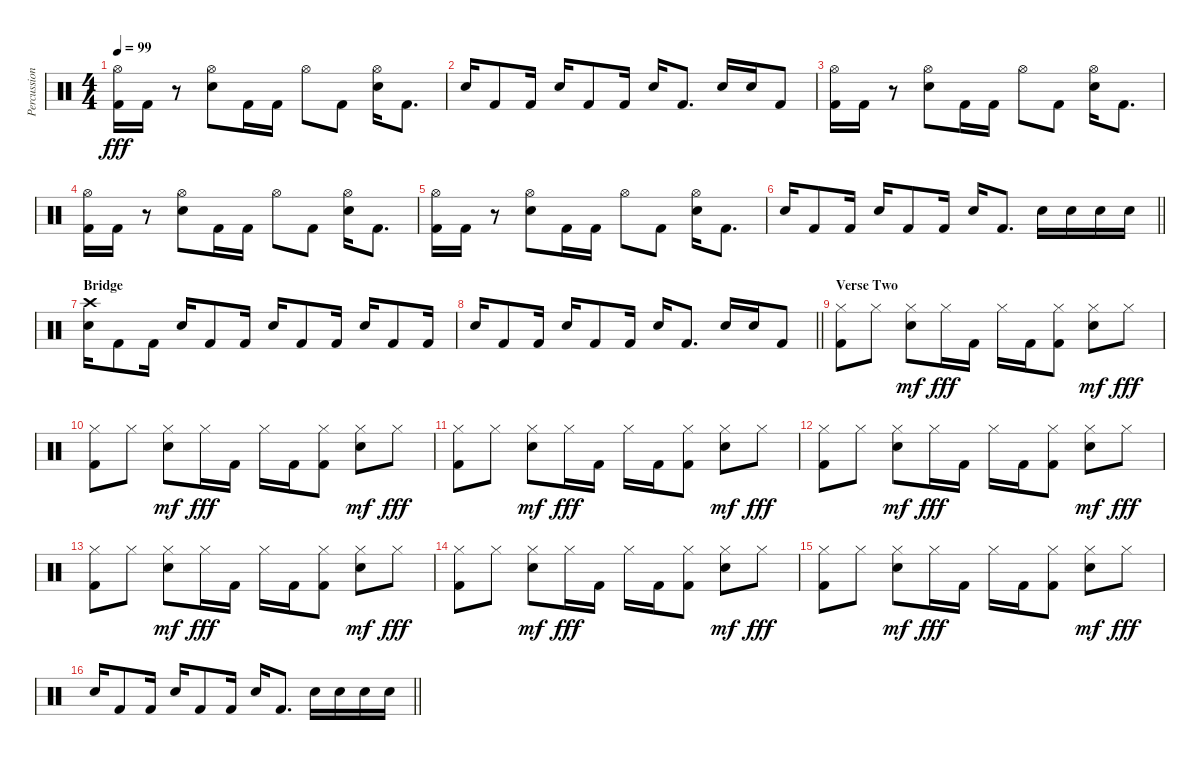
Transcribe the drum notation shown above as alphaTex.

\track ("Percussion" "Percussion") {instrument percussion}
\staff {score}
\articulation defaults
\ts (4 4)
\tempo 99
\clef neutral
\ks c
("Kick (hit) 2" "Hi-Hat (open)").16{dy fff} "Kick (hit) 2".16 r.8 ("Snare (hit) 2" "Hi-Hat (open)").8 "Kick (hit) 2".16 "Kick (hit) 2".16 "Hi-Hat (open)".8 "Kick (hit) 2".8 ("Snare (hit) 2" "Hi-Hat (open)").16 "Kick (hit) 2".8{d} |
"Snare (hit) 2".16 "Kick (hit) 2".8 "Kick (hit) 2".16 "Snare (hit) 2".16 "Kick (hit) 2".8 "Kick (hit) 2".16 "Snare (hit) 2".16 "Kick (hit) 2".8{d} "Snare (hit) 2".16 "Snare (hit) 2".16 "Kick (hit) 2".8 |
("Kick (hit) 2" "Hi-Hat (open)").16 "Kick (hit) 2".16 r.8 ("Snare (hit) 2" "Hi-Hat (open)").8 "Kick (hit) 2".16 "Kick (hit) 2".16 "Hi-Hat (open)".8 "Kick (hit) 2".8 ("Snare (hit) 2" "Hi-Hat (open)").16 "Kick (hit) 2".8{d} |
("Kick (hit) 2" "Hi-Hat (open)").16 "Kick (hit) 2".16 r.8 ("Snare (hit) 2" "Hi-Hat (open)").8 "Kick (hit) 2".16 "Kick (hit) 2".16 "Hi-Hat (open)".8 "Kick (hit) 2".8 ("Snare (hit) 2" "Hi-Hat (open)").16 "Kick (hit) 2".8{d} |
("Kick (hit) 2" "Hi-Hat (open)").16 "Kick (hit) 2".16 r.8 ("Snare (hit) 2" "Hi-Hat (open)").8 "Kick (hit) 2".16 "Kick (hit) 2".16 "Hi-Hat (open)".8 "Kick (hit) 2".8 ("Snare (hit) 2" "Hi-Hat (open)").16 "Kick (hit) 2".8{d} |
\barLineRight lightlight "Snare (hit) 2".16 "Kick (hit) 2".8 "Kick (hit) 2".16 "Snare (hit) 2".16 "Kick (hit) 2".8 "Kick (hit) 2".16 "Snare (hit) 2".16 "Kick (hit) 2".8{d} "Snare (hit) 2".16 "Snare (hit) 2".16 "Snare (hit) 2".16 "Snare (hit) 2".16
|
\section ("" "Bridge")
("Crash high (hit)" "Snare (hit) 2").16 "Kick (hit) 2".8 "Kick (hit) 2".16 "Snare (hit) 2".16 "Kick (hit) 2".8 "Kick (hit) 2".16 "Snare (hit) 2".16 "Kick (hit) 2".8 "Kick (hit) 2".16 "Snare (hit) 2".16 "Kick (hit) 2".8 "Kick (hit) 2".16 |
\barLineRight lightlight "Snare (hit) 2".16 "Kick (hit) 2".8 "Kick (hit) 2".16 "Snare (hit) 2".16 "Kick (hit) 2".8 "Kick (hit) 2".16 "Snare (hit) 2".16 "Kick (hit) 2".8{d} "Snare (hit) 2".16 "Snare (hit) 2".16 "Kick (hit) 2".8
|
\section ("" "Verse Two")
("Hi-Hat (closed)" "Kick (hit) 2").8 "Hi-Hat (closed)".8 ("Hi-Hat (closed)" "Snare (hit) 2").8{dy mf} "Hi-Hat (closed)".16{dy fff} "Kick (hit) 2".16 "Hi-Hat (closed)".16 "Kick (hit) 2".16 ("Hi-Hat (closed)" "Kick (hit) 2").8 ("Hi-Hat (closed)" "Snare (hit) 2").8{dy mf} "Hi-Hat (closed)".8{dy fff} |
("Hi-Hat (closed)" "Kick (hit) 2").8 "Hi-Hat (closed)".8 ("Hi-Hat (closed)" "Snare (hit) 2").8{dy mf} "Hi-Hat (closed)".16{dy fff} "Kick (hit) 2".16 "Hi-Hat (closed)".16 "Kick (hit) 2".16 ("Hi-Hat (closed)" "Kick (hit) 2").8 ("Hi-Hat (closed)" "Snare (hit) 2").8{dy mf} "Hi-Hat (closed)".8{dy fff} |
("Hi-Hat (closed)" "Kick (hit) 2").8 "Hi-Hat (closed)".8 ("Hi-Hat (closed)" "Snare (hit) 2").8{dy mf} "Hi-Hat (closed)".16{dy fff} "Kick (hit) 2".16 "Hi-Hat (closed)".16 "Kick (hit) 2".16 ("Hi-Hat (closed)" "Kick (hit) 2").8 ("Hi-Hat (closed)" "Snare (hit) 2").8{dy mf} "Hi-Hat (closed)".8{dy fff} |
("Hi-Hat (closed)" "Kick (hit) 2").8 "Hi-Hat (closed)".8 ("Hi-Hat (closed)" "Snare (hit) 2").8{dy mf} "Hi-Hat (closed)".16{dy fff} "Kick (hit) 2".16 "Hi-Hat (closed)".16 "Kick (hit) 2".16 ("Hi-Hat (closed)" "Kick (hit) 2").8 ("Hi-Hat (closed)" "Snare (hit) 2").8{dy mf} "Hi-Hat (closed)".8{dy fff} |
("Hi-Hat (closed)" "Kick (hit) 2").8 "Hi-Hat (closed)".8 ("Hi-Hat (closed)" "Snare (hit) 2").8{dy mf} "Hi-Hat (closed)".16{dy fff} "Kick (hit) 2".16 "Hi-Hat (closed)".16 "Kick (hit) 2".16 ("Hi-Hat (closed)" "Kick (hit) 2").8 ("Hi-Hat (closed)" "Snare (hit) 2").8{dy mf} "Hi-Hat (closed)".8{dy fff} |
("Hi-Hat (closed)" "Kick (hit) 2").8 "Hi-Hat (closed)".8 ("Hi-Hat (closed)" "Snare (hit) 2").8{dy mf} "Hi-Hat (closed)".16{dy fff} "Kick (hit) 2".16 "Hi-Hat (closed)".16 "Kick (hit) 2".16 ("Hi-Hat (closed)" "Kick (hit) 2").8 ("Hi-Hat (closed)" "Snare (hit) 2").8{dy mf} "Hi-Hat (closed)".8{dy fff} |
("Hi-Hat (closed)" "Kick (hit) 2").8 "Hi-Hat (closed)".8 ("Hi-Hat (closed)" "Snare (hit) 2").8{dy mf} "Hi-Hat (closed)".16{dy fff} "Kick (hit) 2".16 "Hi-Hat (closed)".16 "Kick (hit) 2".16 ("Hi-Hat (closed)" "Kick (hit) 2").8 ("Hi-Hat (closed)" "Snare (hit) 2").8{dy mf} "Hi-Hat (closed)".8{dy fff} |
\barLineRight lightlight "Snare (hit) 2".16 "Kick (hit) 2".8 "Kick (hit) 2".16 "Snare (hit) 2".16 "Kick (hit) 2".8 "Kick (hit) 2".16 "Snare (hit) 2".16 "Kick (hit) 2".8{d} "Snare (hit) 2".16 "Snare (hit) 2".16 "Snare (hit) 2".16 "Snare (hit) 2".16
